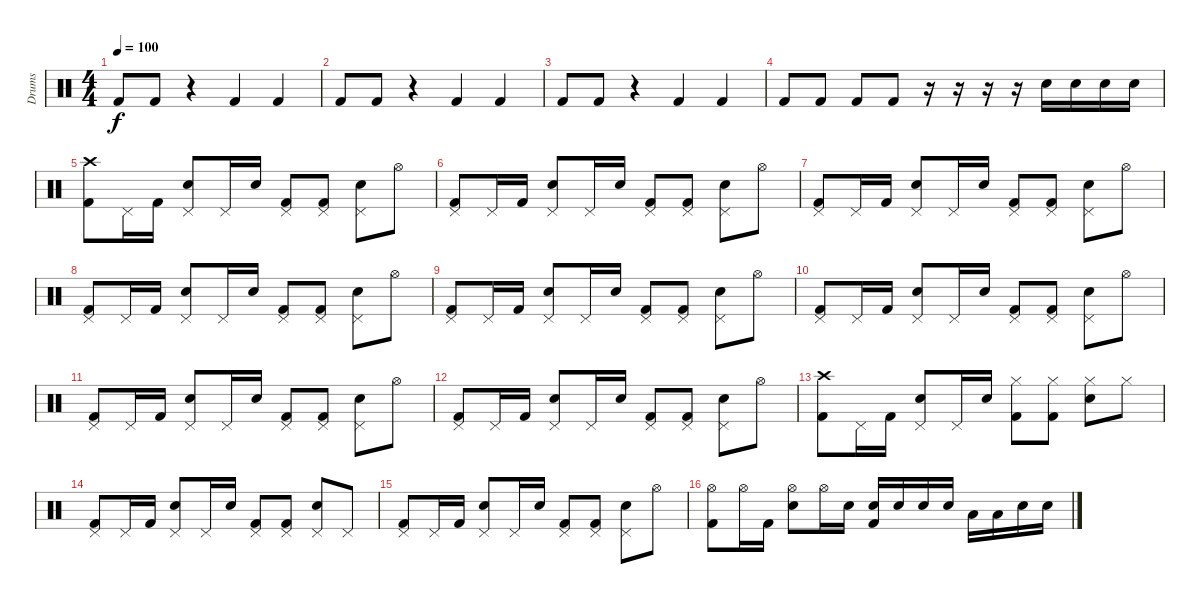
\track ("Drums" "Drums") {instrument percussion}
\staff {score}
\articulation defaults
\ts (4 4)
\tempo 100
\clef neutral
\ks c "Kick (hit) 2".8{dy f} "Kick (hit) 2".8
r.4 "Kick (hit) 2".4 "Kick (hit) 2".4 |
"Kick (hit) 2".8 "Kick (hit) 2".8 r.4 "Kick (hit) 2".4 "Kick (hit) 2".4 |
"Kick (hit) 2".8 "Kick (hit) 2".8 r.4 "Kick (hit) 2".4 "Kick (hit) 2".4 |
"Kick (hit) 2".8 "Kick (hit) 2".8 "Kick (hit) 2".8 "Kick (hit) 2".8 r.16 r.16 r.16 r.16 "Electric Snare (hit)".16 "Electric Snare (hit)".16 "Electric Snare (hit)".16 "Electric Snare (hit)".16 |
("Crash high (hit)" "Kick (hit) 2").8 "Pedal Hi-Hat (hit)".16 "Kick (hit) 2".16 ("Pedal Hi-Hat (hit)" "Electric Snare (hit)").8 "Pedal Hi-Hat (hit)".16 "Electric Snare (hit)".16 ("Pedal Hi-Hat (hit)" "Kick (hit) 2").8 ("Pedal Hi-Hat (hit)" "Kick (hit) 2").8 ("Pedal Hi-Hat (hit)" "Electric Snare (hit)").8 "Hi-Hat (open)".8 |
("Pedal Hi-Hat (hit)" "Kick (hit) 2").8 "Pedal Hi-Hat (hit)".16 "Kick (hit) 2".16 ("Pedal Hi-Hat (hit)" "Electric Snare (hit)").8 "Pedal Hi-Hat (hit)".16 "Electric Snare (hit)".16 ("Pedal Hi-Hat (hit)" "Kick (hit) 2").8 ("Pedal Hi-Hat (hit)" "Kick (hit) 2").8 ("Pedal Hi-Hat (hit)" "Electric Snare (hit)").8 "Hi-Hat (open)".8 |
("Pedal Hi-Hat (hit)" "Kick (hit) 2").8 "Pedal Hi-Hat (hit)".16 "Kick (hit) 2".16 ("Pedal Hi-Hat (hit)" "Electric Snare (hit)").8 "Pedal Hi-Hat (hit)".16 "Electric Snare (hit)".16 ("Pedal Hi-Hat (hit)" "Kick (hit) 2").8 ("Pedal Hi-Hat (hit)" "Kick (hit) 2").8 ("Pedal Hi-Hat (hit)" "Electric Snare (hit)").8 "Hi-Hat (open)".8 |
("Pedal Hi-Hat (hit)" "Kick (hit) 2").8 "Pedal Hi-Hat (hit)".16 "Kick (hit) 2".16 ("Pedal Hi-Hat (hit)" "Electric Snare (hit)").8 "Pedal Hi-Hat (hit)".16 "Electric Snare (hit)".16 ("Pedal Hi-Hat (hit)" "Kick (hit) 2").8 ("Pedal Hi-Hat (hit)" "Kick (hit) 2").8 ("Pedal Hi-Hat (hit)" "Electric Snare (hit)").8 "Hi-Hat (open)".8 |
("Pedal Hi-Hat (hit)" "Kick (hit) 2").8 "Pedal Hi-Hat (hit)".16 "Kick (hit) 2".16 ("Pedal Hi-Hat (hit)" "Electric Snare (hit)").8 "Pedal Hi-Hat (hit)".16 "Electric Snare (hit)".16 ("Pedal Hi-Hat (hit)" "Kick (hit) 2").8 ("Pedal Hi-Hat (hit)" "Kick (hit) 2").8 ("Pedal Hi-Hat (hit)" "Electric Snare (hit)").8 "Hi-Hat (open)".8 |
("Pedal Hi-Hat (hit)" "Kick (hit) 2").8 "Pedal Hi-Hat (hit)".16 "Kick (hit) 2".16 ("Pedal Hi-Hat (hit)" "Electric Snare (hit)").8 "Pedal Hi-Hat (hit)".16 "Electric Snare (hit)".16 ("Pedal Hi-Hat (hit)" "Kick (hit) 2").8 ("Pedal Hi-Hat (hit)" "Kick (hit) 2").8 ("Pedal Hi-Hat (hit)" "Electric Snare (hit)").8 "Hi-Hat (open)".8 |
("Pedal Hi-Hat (hit)" "Kick (hit) 2").8 "Pedal Hi-Hat (hit)".16 "Kick (hit) 2".16 ("Pedal Hi-Hat (hit)" "Electric Snare (hit)").8 "Pedal Hi-Hat (hit)".16 "Electric Snare (hit)".16 ("Pedal Hi-Hat (hit)" "Kick (hit) 2").8 ("Pedal Hi-Hat (hit)" "Kick (hit) 2").8 ("Pedal Hi-Hat (hit)" "Electric Snare (hit)").8 "Hi-Hat (open)".8 |
("Pedal Hi-Hat (hit)" "Kick (hit) 2").8 "Pedal Hi-Hat (hit)".16 "Kick (hit) 2".16 ("Pedal Hi-Hat (hit)" "Electric Snare (hit)").8 "Pedal Hi-Hat (hit)".16 "Electric Snare (hit)".16 ("Pedal Hi-Hat (hit)" "Kick (hit) 2").8 ("Pedal Hi-Hat (hit)" "Kick (hit) 2").8 ("Pedal Hi-Hat (hit)" "Electric Snare (hit)").8 "Hi-Hat (open)".8 |
("Crash high (hit)" "Kick (hit) 2").8 "Pedal Hi-Hat (hit)".16 "Kick (hit) 2".16 ("Pedal Hi-Hat (hit)" "Electric Snare (hit)").8 "Pedal Hi-Hat (hit)".16 "Electric Snare (hit)".16 ("Hi-Hat (closed)" "Kick (hit) 2").8 ("Hi-Hat (closed)" "Kick (hit) 2").8 ("Hi-Hat (closed)" "Electric Snare (hit)").8 "Hi-Hat (closed)".8 |
("Pedal Hi-Hat (hit)" "Kick (hit) 2").8 "Pedal Hi-Hat (hit)".16 "Kick (hit) 2".16 ("Pedal Hi-Hat (hit)" "Electric Snare (hit)").8 "Pedal Hi-Hat (hit)".16 "Electric Snare (hit)".16 ("Pedal Hi-Hat (hit)" "Kick (hit) 2").8 ("Pedal Hi-Hat (hit)" "Kick (hit) 2").8 ("Pedal Hi-Hat (hit)" "Electric Snare (hit)").8 "Pedal Hi-Hat (hit)".8 |
("Pedal Hi-Hat (hit)" "Kick (hit) 2").8 "Pedal Hi-Hat (hit)".16 "Kick (hit) 2".16 ("Pedal Hi-Hat (hit)" "Electric Snare (hit)").8 "Pedal Hi-Hat (hit)".16 "Electric Snare (hit)".16 ("Pedal Hi-Hat (hit)" "Kick (hit) 2").8 ("Pedal Hi-Hat (hit)" "Kick (hit) 2").8 ("Pedal Hi-Hat (hit)" "Electric Snare (hit)").8 "Hi-Hat (open)".8 |
("Hi-Hat (open)" "Kick (hit) 2").8 "Hi-Hat (open)".16 "Kick (hit) 2".16 ("Hi-Hat (open)" "Electric Snare (hit)").8 "Hi-Hat (open)".16 "Electric Snare (hit)".16 ("Electric Snare (hit)" "Kick (hit) 2").16 "Electric Snare (hit)".16 "Electric Snare (hit)".16 "Electric Snare (hit)".16 "Low Tom (hit)".16 "Low Tom (hit)".16 "Electric Snare (hit)".16 "Electric Snare (hit)".16
